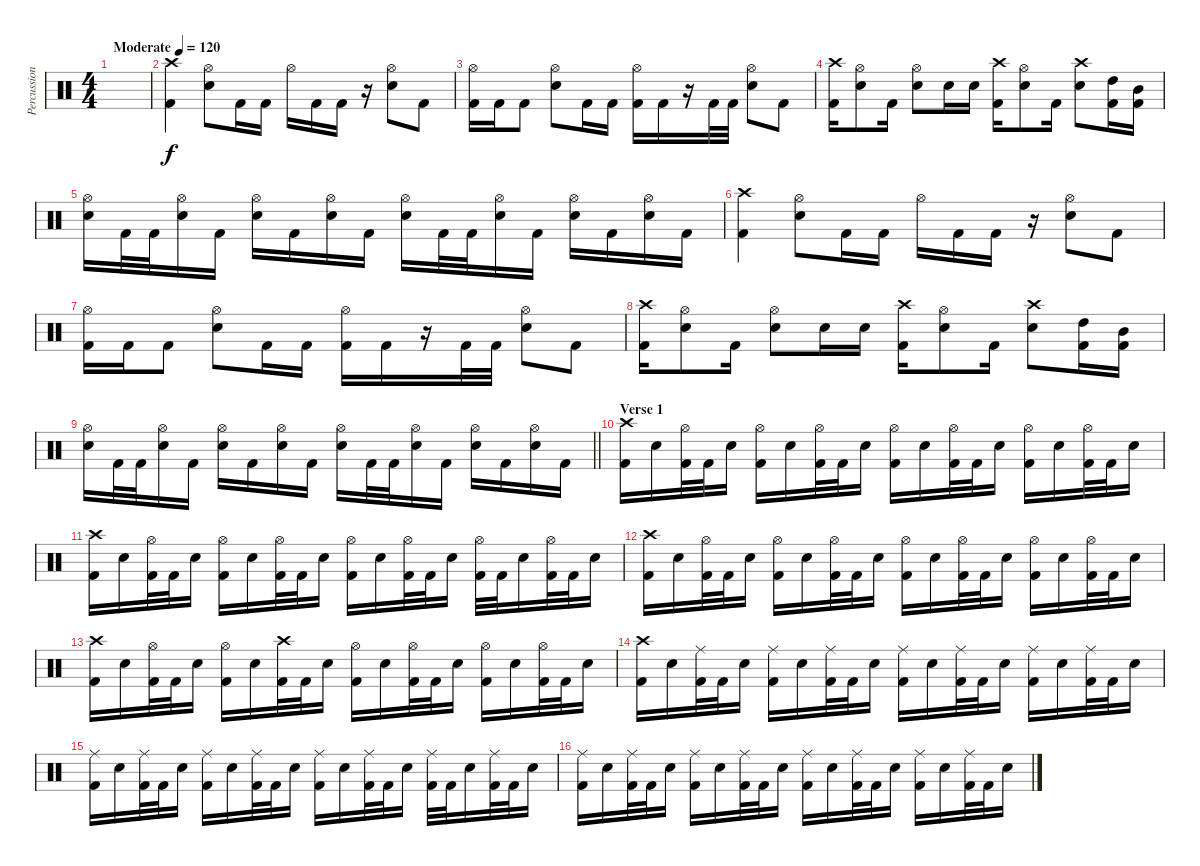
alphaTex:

\track ("Percussion" "Percussion") {instrument percussion}
\staff {score}
\articulation defaults
\ts (4 4)
\tempo (120 "Moderate")
\clef neutral
\ks c
|
("Crash high (hit)" "Kick (hit) 2").4 ("Hi-Hat (open)" "Electric Snare (hit)").8 "Kick (hit) 2".16 "Kick (hit) 2".16 "Hi-Hat (open)".16 "Kick (hit) 2".16 "Kick (hit) 2".16 r.16 ("Hi-Hat (open)" "Electric Snare (hit)").8 "Kick (hit) 2".8 |
("Hi-Hat (open)" "Kick (hit) 2").16 "Kick (hit) 2".16 "Kick (hit) 2".8 ("Hi-Hat (open)" "Electric Snare (hit)").8 "Kick (hit) 2".16 "Kick (hit) 2".16 ("Hi-Hat (open)" "Kick (hit) 2").16 "Kick (hit) 2".16 r.16 "Kick (hit) 2".32 "Kick (hit) 2".32 ("Hi-Hat (open)" "Electric Snare (hit)").8 "Kick (hit) 2".8 |
("Crash high (hit)" "Kick (hit) 2").16 ("Hi-Hat (open)" "Electric Snare (hit)").8 "Kick (hit) 2".16 ("Hi-Hat (open)" "Electric Snare (hit)").8 "Electric Snare (hit)".16 "Electric Snare (hit)".16 ("Crash high (hit)" "Kick (hit) 2").16 ("Hi-Hat (open)" "Electric Snare (hit)").8 "Kick (hit) 2".16 ("Crash high (hit)" "Electric Snare (hit)").8 ("High Tom (hit)" "Kick (hit) 2").16 ("Mid Tom (hit)" "Kick (hit) 2").16 |
("Hi-Hat (open)" "Electric Snare (hit)").16 "Kick (hit) 2".32 "Kick (hit) 2".32 ("Hi-Hat (open)" "Electric Snare (hit)").16 "Kick (hit) 2".16 ("Hi-Hat (open)" "Electric Snare (hit)").16 "Kick (hit) 2".16 ("Hi-Hat (open)" "Electric Snare (hit)").16 "Kick (hit) 2".16 ("Hi-Hat (open)" "Electric Snare (hit)").16 "Kick (hit) 2".32 "Kick (hit) 2".32 ("Hi-Hat (open)" "Electric Snare (hit)").16 "Kick (hit) 2".16 ("Hi-Hat (open)" "Electric Snare (hit)").16 "Kick (hit) 2".16 ("Hi-Hat (open)" "Electric Snare (hit)").16 "Kick (hit) 2".16 |
("Crash high (hit)" "Kick (hit) 2").4 ("Hi-Hat (open)" "Electric Snare (hit)").8 "Kick (hit) 2".16 "Kick (hit) 2".16 "Hi-Hat (open)".16 "Kick (hit) 2".16 "Kick (hit) 2".16 r.16 ("Hi-Hat (open)" "Electric Snare (hit)").8 "Kick (hit) 2".8 |
("Hi-Hat (open)" "Kick (hit) 2").16 "Kick (hit) 2".16 "Kick (hit) 2".8 ("Hi-Hat (open)" "Electric Snare (hit)").8 "Kick (hit) 2".16 "Kick (hit) 2".16 ("Hi-Hat (open)" "Kick (hit) 2").16 "Kick (hit) 2".16 r.16 "Kick (hit) 2".32 "Kick (hit) 2".32 ("Hi-Hat (open)" "Electric Snare (hit)").8 "Kick (hit) 2".8 |
("Crash high (hit)" "Kick (hit) 2").16 ("Hi-Hat (open)" "Electric Snare (hit)").8 "Kick (hit) 2".16 ("Hi-Hat (open)" "Electric Snare (hit)").8 "Electric Snare (hit)".16 "Electric Snare (hit)".16 ("Crash high (hit)" "Kick (hit) 2").16 ("Hi-Hat (open)" "Electric Snare (hit)").8 "Kick (hit) 2".16 ("Crash high (hit)" "Electric Snare (hit)").8 ("High Tom (hit)" "Kick (hit) 2").16 ("Mid Tom (hit)" "Kick (hit) 2").16 |
\barLineRight lightlight
("Hi-Hat (open)" "Electric Snare (hit)").16 "Kick (hit) 2".32 "Kick (hit) 2".32 ("Hi-Hat (open)" "Electric Snare (hit)").16 "Kick (hit) 2".16 ("Hi-Hat (open)" "Electric Snare (hit)").16 "Kick (hit) 2".16 ("Hi-Hat (open)" "Electric Snare (hit)").16 "Kick (hit) 2".16 ("Hi-Hat (open)" "Electric Snare (hit)").16 "Kick (hit) 2".32 "Kick (hit) 2".32 ("Hi-Hat (open)" "Electric Snare (hit)").16 "Kick (hit) 2".16 ("Hi-Hat (open)" "Electric Snare (hit)").16 "Kick (hit) 2".16 ("Hi-Hat (open)" "Electric Snare (hit)").16 "Kick (hit) 2".16 |
\section ("" "Verse 1")
("Crash high (hit)" "Kick (hit) 2").16 "Electric Snare (hit)".16 ("Hi-Hat (open)" "Kick (hit) 2").32 "Kick (hit) 2".32 "Electric Snare (hit)".16 ("Hi-Hat (open)" "Kick (hit) 2").16 "Electric Snare (hit)".16 ("Hi-Hat (open)" "Kick (hit) 2").32 "Kick (hit) 2".32 "Electric Snare (hit)".16 ("Hi-Hat (open)" "Kick (hit) 2").16 "Electric Snare (hit)".16 ("Hi-Hat (open)" "Kick (hit) 2").32 "Kick (hit) 2".32 "Electric Snare (hit)".16 ("Hi-Hat (open)" "Kick (hit) 2").16 "Electric Snare (hit)".16 ("Hi-Hat (open)" "Kick (hit) 2").32 "Kick (hit) 2".32 "Electric Snare (hit)".16 |
("Crash high (hit)" "Kick (hit) 2").16 "Electric Snare (hit)".16 ("Hi-Hat (open)" "Kick (hit) 2").32 "Kick (hit) 2".32 "Electric Snare (hit)".16 ("Hi-Hat (open)" "Kick (hit) 2").16 "Electric Snare (hit)".16 ("Hi-Hat (open)" "Kick (hit) 2").32 "Kick (hit) 2".32 "Electric Snare (hit)".16 ("Hi-Hat (open)" "Kick (hit) 2").16 "Electric Snare (hit)".16 ("Hi-Hat (open)" "Kick (hit) 2").32 "Kick (hit) 2".32 "Electric Snare (hit)".16 ("Hi-Hat (open)" "Kick (hit) 2").32 "Kick (hit) 2".32 "Electric Snare (hit)".16 ("Hi-Hat (open)" "Kick (hit) 2").32 "Kick (hit) 2".32 "Electric Snare (hit)".16 |
("Crash high (hit)" "Kick (hit) 2").16 "Electric Snare (hit)".16 ("Hi-Hat (open)" "Kick (hit) 2").32 "Kick (hit) 2".32 "Electric Snare (hit)".16 ("Hi-Hat (open)" "Kick (hit) 2").16 "Electric Snare (hit)".16 ("Hi-Hat (open)" "Kick (hit) 2").32 "Kick (hit) 2".32 "Electric Snare (hit)".16 ("Hi-Hat (open)" "Kick (hit) 2").16 "Electric Snare (hit)".16 ("Hi-Hat (open)" "Kick (hit) 2").32 "Kick (hit) 2".32 "Electric Snare (hit)".16 ("Hi-Hat (open)" "Kick (hit) 2").16 "Electric Snare (hit)".16 ("Hi-Hat (open)" "Kick (hit) 2").32 "Kick (hit) 2".32 "Electric Snare (hit)".16 |
("Crash high (hit)" "Kick (hit) 2").16 "Electric Snare (hit)".16 ("Hi-Hat (open)" "Kick (hit) 2").32 "Kick (hit) 2".32 "Electric Snare (hit)".16 ("Hi-Hat (open)" "Kick (hit) 2").16 "Electric Snare (hit)".16 ("Crash high (hit)" "Kick (hit) 2").32 "Kick (hit) 2".32 "Electric Snare (hit)".16 ("Hi-Hat (open)" "Kick (hit) 2").16 "Electric Snare (hit)".16 ("Hi-Hat (open)" "Kick (hit) 2").32 "Kick (hit) 2".32 "Electric Snare (hit)".16 ("Hi-Hat (open)" "Kick (hit) 2").16 "Electric Snare (hit)".16 ("Hi-Hat (open)" "Kick (hit) 2").32 "Kick (hit) 2".32 "Electric Snare (hit)".16 |
("Crash high (hit)" "Kick (hit) 2").16 "Electric Snare (hit)".16 ("Ride (middle)" "Kick (hit) 2").32 "Kick (hit) 2".32 "Electric Snare (hit)".16 ("Ride (middle)" "Kick (hit) 2").16 "Electric Snare (hit)".16 ("Ride (middle)" "Kick (hit) 2").32 "Kick (hit) 2".32 "Electric Snare (hit)".16 ("Ride (middle)" "Kick (hit) 2").16 "Electric Snare (hit)".16 ("Ride (middle)" "Kick (hit) 2").32 "Kick (hit) 2".32 "Electric Snare (hit)".16 ("Ride (middle)" "Kick (hit) 2").16 "Electric Snare (hit)".16 ("Ride (middle)" "Kick (hit) 2").32 "Kick (hit) 2".32 "Electric Snare (hit)".16 |
("Ride (middle)" "Kick (hit) 2").16 "Electric Snare (hit)".16 ("Ride (middle)" "Kick (hit) 2").32 "Kick (hit) 2".32 "Electric Snare (hit)".16 ("Ride (middle)" "Kick (hit) 2").16 "Electric Snare (hit)".16 ("Ride (middle)" "Kick (hit) 2").32 "Kick (hit) 2".32 "Electric Snare (hit)".16 ("Ride (middle)" "Kick (hit) 2").16 "Electric Snare (hit)".16 ("Ride (middle)" "Kick (hit) 2").32 "Kick (hit) 2".32 "Electric Snare (hit)".16 ("Ride (middle)" "Kick (hit) 2").32 "Kick (hit) 2".32 "Electric Snare (hit)".16 ("Ride (middle)" "Kick (hit) 2").32 "Kick (hit) 2".32 "Electric Snare (hit)".16 |
("Ride (middle)" "Kick (hit) 2").16 "Electric Snare (hit)".16 ("Ride (middle)" "Kick (hit) 2").32 "Kick (hit) 2".32 "Electric Snare (hit)".16 ("Ride (middle)" "Kick (hit) 2").16 "Electric Snare (hit)".16 ("Ride (middle)" "Kick (hit) 2").32 "Kick (hit) 2".32 "Electric Snare (hit)".16 ("Ride (middle)" "Kick (hit) 2").16 "Electric Snare (hit)".16 ("Ride (middle)" "Kick (hit) 2").32 "Kick (hit) 2".32 "Electric Snare (hit)".16 ("Ride (middle)" "Kick (hit) 2").16 "Electric Snare (hit)".16 ("Ride (middle)" "Kick (hit) 2").32 "Kick (hit) 2".32 "Electric Snare (hit)".16
